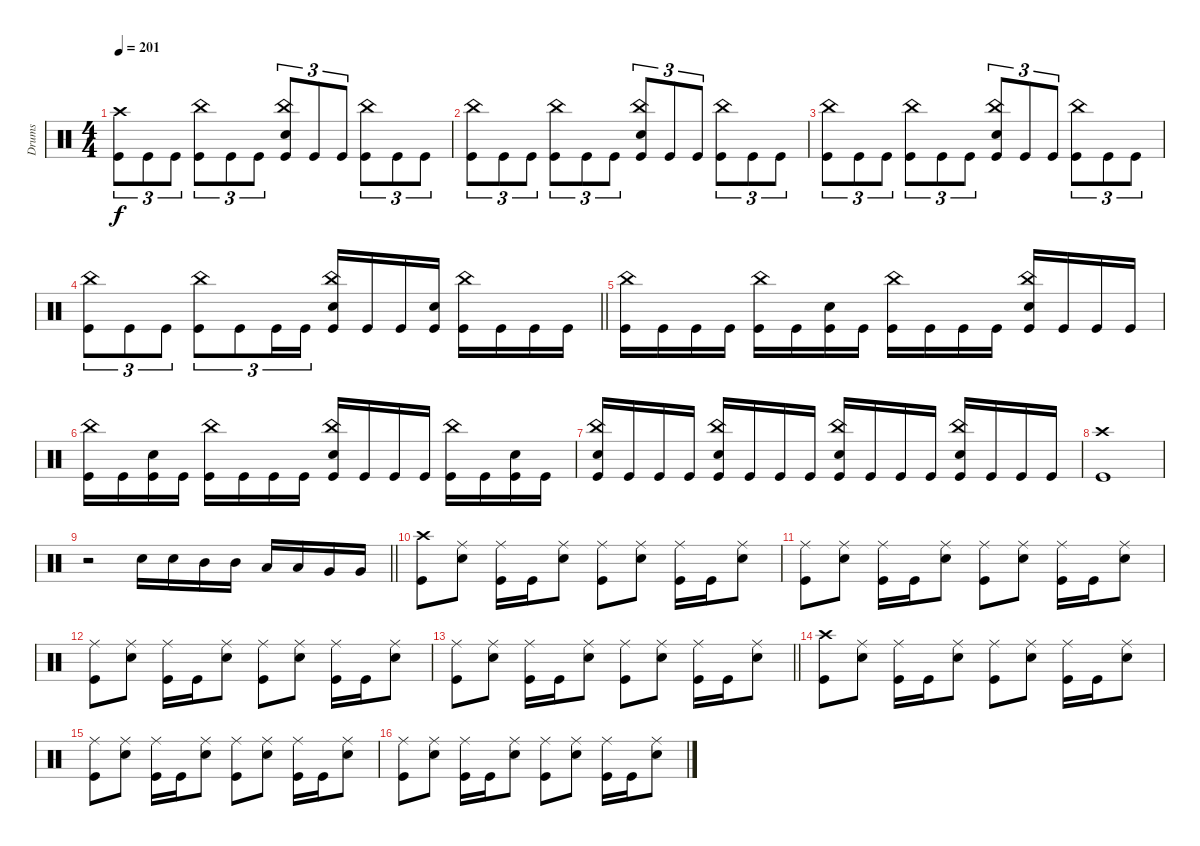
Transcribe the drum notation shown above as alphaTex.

\track ("Drums" "Drums") {instrument percussion}
\staff
\articulation defaults
\ts (4 4)
\tempo 201
\clef neutral
\ks c
("Crash high (hit)" "Kick (hit)").8{tu (3 2) dy f} "Kick (hit)".8{tu (3 2)} "Kick (hit)".8{tu (3 2)} ("China (hit)" "Kick (hit)").8{tu (3 2)} "Kick (hit)".8{tu (3 2)} "Kick (hit)".8{tu (3 2)} ("China (hit)" "Electric Snare (hit)" "Kick (hit)").8{tu (3 2)} "Kick (hit)".8{tu (3 2)} "Kick (hit)".8{tu (3 2)} ("China (hit)" "Kick (hit)").8{tu (3 2)} "Kick (hit)".8{tu (3 2)} "Kick (hit)".8{tu (3 2)} |
("China (hit)" "Kick (hit)").8{tu (3 2)} "Kick (hit)".8{tu (3 2)} "Kick (hit)".8{tu (3 2)} ("China (hit)" "Kick (hit)").8{tu (3 2)} "Kick (hit)".8{tu (3 2)} "Kick (hit)".8{tu (3 2)} ("China (hit)" "Electric Snare (hit)" "Kick (hit)").8{tu (3 2)} "Kick (hit)".8{tu (3 2)} "Kick (hit)".8{tu (3 2)} ("China (hit)" "Kick (hit)").8{tu (3 2)} "Kick (hit)".8{tu (3 2)} "Kick (hit)".8{tu (3 2)} |
("China (hit)" "Kick (hit)").8{tu (3 2)} "Kick (hit)".8{tu (3 2)} "Kick (hit)".8{tu (3 2)} ("China (hit)" "Kick (hit)").8{tu (3 2)} "Kick (hit)".8{tu (3 2)} "Kick (hit)".8{tu (3 2)} ("China (hit)" "Electric Snare (hit)" "Kick (hit)").8{tu (3 2)} "Kick (hit)".8{tu (3 2)} "Kick (hit)".8{tu (3 2)} ("China (hit)" "Kick (hit)").8{tu (3 2)} "Kick (hit)".8{tu (3 2)} "Kick (hit)".8{tu (3 2)} |
\barLineRight lightlight
("China (hit)" "Kick (hit)").8{tu (3 2)} "Kick (hit)".8{tu (3 2)} "Kick (hit)".8{tu (3 2)} ("China (hit)" "Kick (hit)").8{tu (3 2)} "Kick (hit)".8{tu (3 2)} "Kick (hit)".16{tu (3 2)} "Kick (hit)".16{tu (3 2)} ("China (hit)" "Electric Snare (hit)" "Kick (hit)").16 "Kick (hit)".16 "Kick (hit)".16 ("Electric Snare (hit)" "Kick (hit)").16 ("China (hit)" "Kick (hit)").16 "Kick (hit)".16 "Kick (hit)".16 "Kick (hit)".16 |
("China (hit)" "Kick (hit)").16 "Kick (hit)".16 "Kick (hit)".16 "Kick (hit)".16 ("China (hit)" "Kick (hit)").16 "Kick (hit)".16 ("Electric Snare (hit)" "Kick (hit)").16 "Kick (hit)".16 ("China (hit)" "Kick (hit)").16 "Kick (hit)".16 "Kick (hit)".16 "Kick (hit)".16 ("China (hit)" "Electric Snare (hit)" "Kick (hit)").16 "Kick (hit)".16 "Kick (hit)".16 "Kick (hit)".16 |
("China (hit)" "Kick (hit)").16 "Kick (hit)".16 ("Electric Snare (hit)" "Kick (hit)").16 "Kick (hit)".16 ("China (hit)" "Kick (hit)").16 "Kick (hit)".16 "Kick (hit)".16 "Kick (hit)".16 ("China (hit)" "Electric Snare (hit)" "Kick (hit)").16 "Kick (hit)".16 "Kick (hit)".16 "Kick (hit)".16 ("China (hit)" "Kick (hit)").16 "Kick (hit)".16 ("Electric Snare (hit)" "Kick (hit)").16 "Kick (hit)".16 |
("China (hit)" "Electric Snare (hit)" "Kick (hit)").16 "Kick (hit)".16 "Kick (hit)".16 "Kick (hit)".16 ("China (hit)" "Electric Snare (hit)" "Kick (hit)").16 "Kick (hit)".16 "Kick (hit)".16 "Kick (hit)".16 ("China (hit)" "Electric Snare (hit)" "Kick (hit)").16 "Kick (hit)".16 "Kick (hit)".16 "Kick (hit)".16 ("China (hit)" "Electric Snare (hit)" "Kick (hit)").16 "Kick (hit)".16 "Kick (hit)".16 "Kick (hit)".16 |
("Crash high (hit)" "Kick (hit)").1 |
\barLineRight lightlight
r.2 "Electric Snare (hit)".16 "Electric Snare (hit)".16 "Mid Tom (hit)".16 "Mid Tom (hit)".16 "Low Tom (hit)".16 "Low Tom (hit)".16 "Very Low Tom (hit)".16 "Very Low Tom (hit)".16 |
\section ("" "")
("Crash high (hit)" "Kick (hit)").8 ("Ride (middle)" "Electric Snare (hit)").8 ("Ride (middle)" "Kick (hit)").16 "Kick (hit)".16 ("Ride (middle)" "Electric Snare (hit)").8 ("Ride (middle)" "Kick (hit)").8 ("Ride (middle)" "Electric Snare (hit)").8 ("Ride (middle)" "Kick (hit)").16 "Kick (hit)".16 ("Ride (middle)" "Electric Snare (hit)").8 |
("Ride (middle)" "Kick (hit)").8 ("Ride (middle)" "Electric Snare (hit)").8 ("Ride (middle)" "Kick (hit)").16 "Kick (hit)".16 ("Ride (middle)" "Electric Snare (hit)").8 ("Ride (middle)" "Kick (hit)").8 ("Ride (middle)" "Electric Snare (hit)").8 ("Ride (middle)" "Kick (hit)").16 "Kick (hit)".16 ("Ride (middle)" "Electric Snare (hit)").8 |
("Ride (middle)" "Kick (hit)").8 ("Ride (middle)" "Electric Snare (hit)").8 ("Ride (middle)" "Kick (hit)").16 "Kick (hit)".16 ("Ride (middle)" "Electric Snare (hit)").8 ("Ride (middle)" "Kick (hit)").8 ("Ride (middle)" "Electric Snare (hit)").8 ("Ride (middle)" "Kick (hit)").16 "Kick (hit)".16 ("Ride (middle)" "Electric Snare (hit)").8 |
\barLineRight lightlight
("Ride (middle)" "Kick (hit)").8 ("Ride (middle)" "Electric Snare (hit)").8 ("Ride (middle)" "Kick (hit)").16 "Kick (hit)".16 ("Ride (middle)" "Electric Snare (hit)").8 ("Ride (middle)" "Kick (hit)").8 ("Ride (middle)" "Electric Snare (hit)").8 ("Ride (middle)" "Kick (hit)").16 "Kick (hit)".16 ("Ride (middle)" "Electric Snare (hit)").8 |
("Crash high (hit)" "Kick (hit)").8 ("Ride (middle)" "Electric Snare (hit)").8 ("Ride (middle)" "Kick (hit)").16 "Kick (hit)".16 ("Ride (middle)" "Electric Snare (hit)").8 ("Ride (middle)" "Kick (hit)").8 ("Ride (middle)" "Electric Snare (hit)").8 ("Ride (middle)" "Kick (hit)").16 "Kick (hit)".16 ("Ride (middle)" "Electric Snare (hit)").8 |
("Ride (middle)" "Kick (hit)").8 ("Ride (middle)" "Electric Snare (hit)").8 ("Ride (middle)" "Kick (hit)").16 "Kick (hit)".16 ("Ride (middle)" "Electric Snare (hit)").8 ("Ride (middle)" "Kick (hit)").8 ("Ride (middle)" "Electric Snare (hit)").8 ("Ride (middle)" "Kick (hit)").16 "Kick (hit)".16 ("Ride (middle)" "Electric Snare (hit)").8 |
("Ride (middle)" "Kick (hit)").8 ("Ride (middle)" "Electric Snare (hit)").8 ("Ride (middle)" "Kick (hit)").16 "Kick (hit)".16 ("Ride (middle)" "Electric Snare (hit)").8 ("Ride (middle)" "Kick (hit)").8 ("Ride (middle)" "Electric Snare (hit)").8 ("Ride (middle)" "Kick (hit)").16 "Kick (hit)".16 ("Ride (middle)" "Electric Snare (hit)").8
